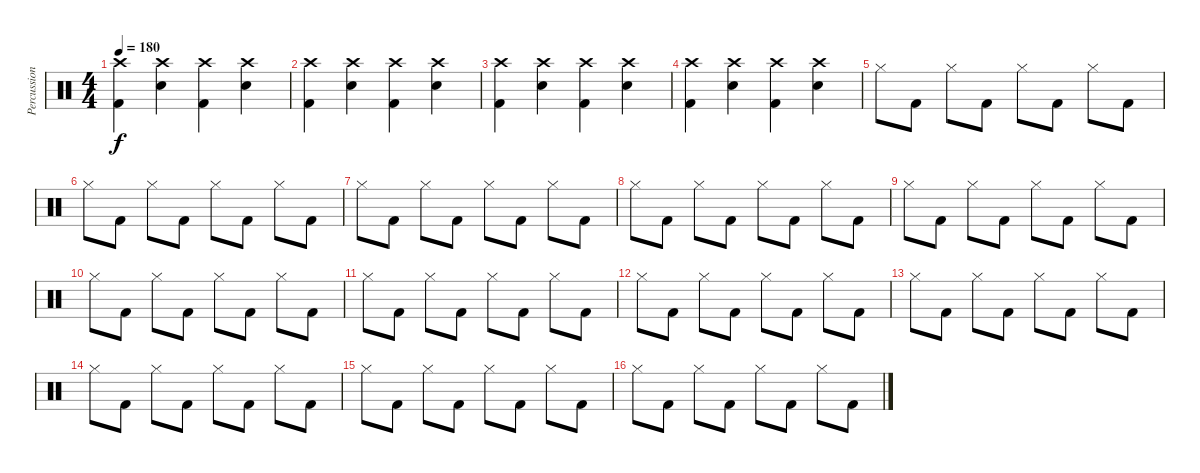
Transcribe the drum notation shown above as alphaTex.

\track ("Percussions" "Percussion") {instrument percussion}
\staff {score}
\articulation defaults
\ts (4 4)
\tempo 180
\clef neutral
\ks c
("Crash high (hit)" "Kick (hit) 2").4{dy f} ("Crash high (hit)" "Snare (hit) 2").4 ("Crash high (hit)" "Kick (hit) 2").4 ("Crash high (hit)" "Snare (hit) 2").4 |
("Crash high (hit)" "Kick (hit) 2").4 ("Crash high (hit)" "Snare (hit) 2").4 ("Crash high (hit)" "Kick (hit) 2").4 ("Crash high (hit)" "Snare (hit) 2").4 |
("Crash high (hit)" "Kick (hit) 2").4 ("Crash high (hit)" "Snare (hit) 2").4 ("Crash high (hit)" "Kick (hit) 2").4 ("Crash high (hit)" "Snare (hit) 2").4 |
("Crash high (hit)" "Kick (hit) 2").4 ("Crash high (hit)" "Snare (hit) 2").4 ("Crash high (hit)" "Kick (hit) 2").4 ("Crash high (hit)" "Snare (hit) 2").4 |
"Hi-Hat (closed)".8 "Kick (hit) 2".8 "Hi-Hat (closed)".8 "Kick (hit) 2".8 "Hi-Hat (closed)".8 "Kick (hit) 2".8 "Hi-Hat (closed)".8 "Kick (hit) 2".8 |
"Hi-Hat (closed)".8 "Kick (hit) 2".8 "Hi-Hat (closed)".8 "Kick (hit) 2".8 "Hi-Hat (closed)".8 "Kick (hit) 2".8 "Hi-Hat (closed)".8 "Kick (hit) 2".8 |
"Hi-Hat (closed)".8 "Kick (hit) 2".8 "Hi-Hat (closed)".8 "Kick (hit) 2".8 "Hi-Hat (closed)".8 "Kick (hit) 2".8 "Hi-Hat (closed)".8 "Kick (hit) 2".8 |
"Hi-Hat (closed)".8 "Kick (hit) 2".8 "Hi-Hat (closed)".8 "Kick (hit) 2".8 "Hi-Hat (closed)".8 "Kick (hit) 2".8 "Hi-Hat (closed)".8 "Kick (hit) 2".8 |
"Hi-Hat (closed)".8 "Kick (hit) 2".8 "Hi-Hat (closed)".8 "Kick (hit) 2".8 "Hi-Hat (closed)".8 "Kick (hit) 2".8 "Hi-Hat (closed)".8 "Kick (hit) 2".8 |
"Hi-Hat (closed)".8 "Kick (hit) 2".8 "Hi-Hat (closed)".8 "Kick (hit) 2".8 "Hi-Hat (closed)".8 "Kick (hit) 2".8 "Hi-Hat (closed)".8 "Kick (hit) 2".8 |
"Hi-Hat (closed)".8 "Kick (hit) 2".8 "Hi-Hat (closed)".8 "Kick (hit) 2".8 "Hi-Hat (closed)".8 "Kick (hit) 2".8 "Hi-Hat (closed)".8 "Kick (hit) 2".8 |
"Hi-Hat (closed)".8 "Kick (hit) 2".8 "Hi-Hat (closed)".8 "Kick (hit) 2".8 "Hi-Hat (closed)".8 "Kick (hit) 2".8 "Hi-Hat (closed)".8 "Kick (hit) 2".8 |
"Hi-Hat (closed)".8 "Kick (hit) 2".8 "Hi-Hat (closed)".8 "Kick (hit) 2".8 "Hi-Hat (closed)".8 "Kick (hit) 2".8 "Hi-Hat (closed)".8 "Kick (hit) 2".8 |
"Hi-Hat (closed)".8 "Kick (hit) 2".8 "Hi-Hat (closed)".8 "Kick (hit) 2".8 "Hi-Hat (closed)".8 "Kick (hit) 2".8 "Hi-Hat (closed)".8 "Kick (hit) 2".8 |
"Hi-Hat (closed)".8 "Kick (hit) 2".8 "Hi-Hat (closed)".8 "Kick (hit) 2".8 "Hi-Hat (closed)".8 "Kick (hit) 2".8 "Hi-Hat (closed)".8 "Kick (hit) 2".8 |
"Hi-Hat (closed)".8 "Kick (hit) 2".8 "Hi-Hat (closed)".8 "Kick (hit) 2".8 "Hi-Hat (closed)".8 "Kick (hit) 2".8 "Hi-Hat (closed)".8 "Kick (hit) 2".8
